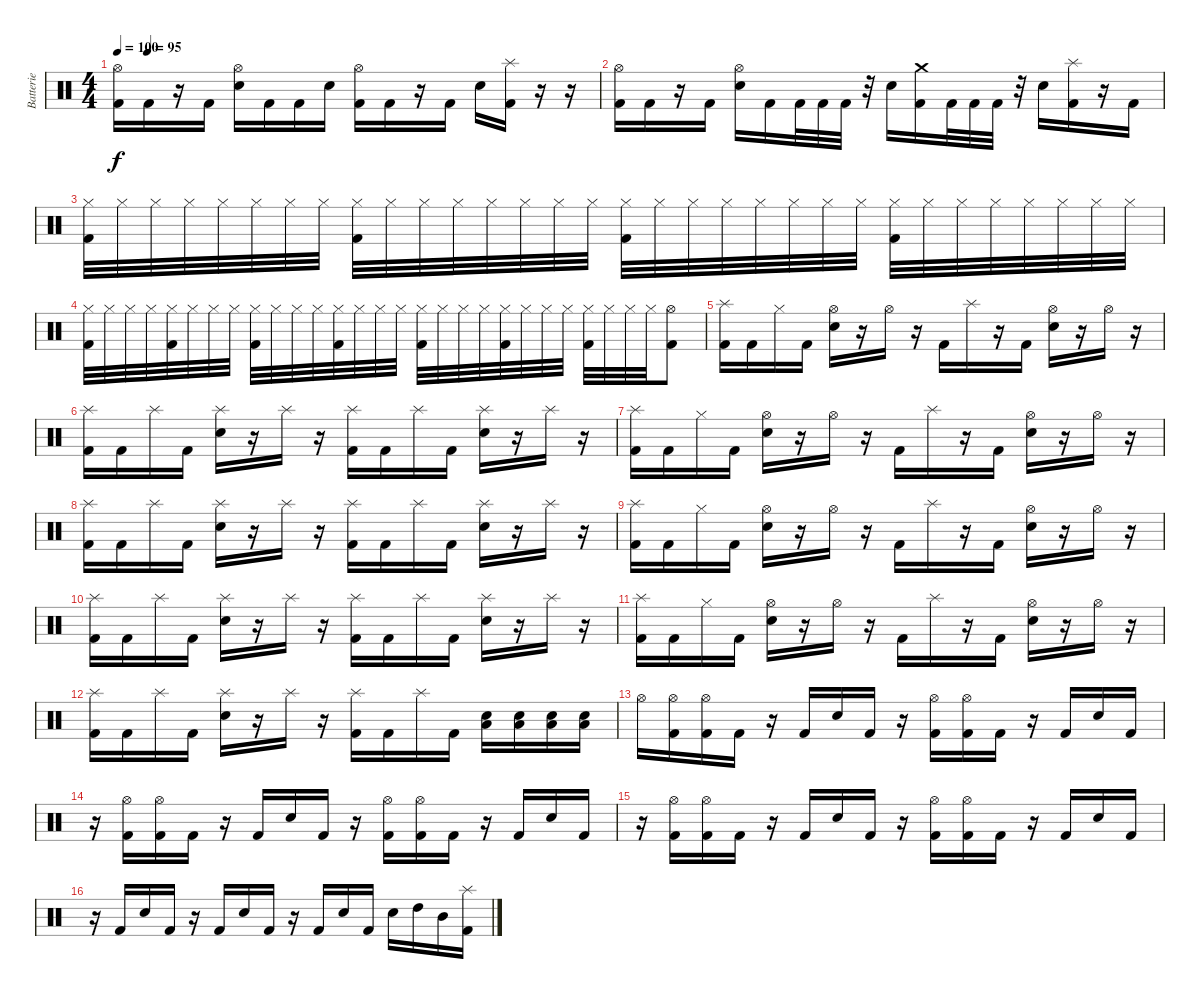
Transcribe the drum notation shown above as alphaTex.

\track ("Batterie" "Batterie") {instrument percussion}
\staff {score}
\articulation defaults
\ts (4 4)
\tempo 100
\tempo (95 0.0625)
\clef neutral
\ks c
("Hi-Hat (open)" "Kick (hit) 2").16{dy f} "Kick (hit) 2".16 r.16 "Kick (hit) 2".16 ("Hi-Hat (open)" "Electric Snare (hit)").16 "Kick (hit) 2".16 "Kick (hit) 2".16 "Electric Snare (hit)".16 ("Hi-Hat (open)" "Kick (hit) 2").16 "Kick (hit) 2".16 r.16 "Kick (hit) 2".16 "Electric Snare (hit)".16 ("Splash (hit)" "Kick (hit) 2").16 r.16 r.16 |
("Hi-Hat (open)" "Kick (hit) 2").16 "Kick (hit) 2".16 r.16 "Kick (hit) 2".16 ("Hi-Hat (open)" "Electric Snare (hit)").16 "Kick (hit) 2".16 "Kick (hit) 2".32 "Kick (hit) 2".32 "Kick (hit) 2".32 r.32 "Electric Snare (hit)".16 ("Crash medium (hit)" "Kick (hit) 2").16 "Kick (hit) 2".32 "Kick (hit) 2".32 "Kick (hit) 2".32 r.32 "Electric Snare (hit)".16 ("Splash (hit)" "Kick (hit) 2").16 r.16 "Kick (hit) 2".16 |
("Hi-Hat (closed)" "Kick (hit) 2").32 "Hi-Hat (closed)".32 "Hi-Hat (closed)".32 "Hi-Hat (closed)".32 "Hi-Hat (closed)".32 "Hi-Hat (closed)".32 "Hi-Hat (closed)".32 "Hi-Hat (closed)".32 ("Hi-Hat (closed)" "Kick (hit) 2").32 "Hi-Hat (closed)".32 "Hi-Hat (closed)".32 "Hi-Hat (closed)".32 "Hi-Hat (closed)".32 "Hi-Hat (closed)".32 "Hi-Hat (closed)".32 "Hi-Hat (closed)".32 ("Hi-Hat (closed)" "Kick (hit) 2").32 "Hi-Hat (closed)".32 "Hi-Hat (closed)".32 "Hi-Hat (closed)".32 "Hi-Hat (closed)".32 "Hi-Hat (closed)".32 "Hi-Hat (closed)".32 "Hi-Hat (closed)".32 ("Hi-Hat (closed)" "Kick (hit) 2").32 "Hi-Hat (closed)".32 "Hi-Hat (closed)".32 "Hi-Hat (closed)".32 "Hi-Hat (closed)".32 "Hi-Hat (closed)".32 "Hi-Hat (closed)".32 "Hi-Hat (closed)".32 |
("Hi-Hat (closed)" "Kick (hit) 2").32 "Hi-Hat (closed)".32 "Hi-Hat (closed)".32 "Hi-Hat (closed)".32 ("Hi-Hat (closed)" "Kick (hit) 2").32 "Hi-Hat (closed)".32 "Hi-Hat (closed)".32 "Hi-Hat (closed)".32 ("Hi-Hat (closed)" "Kick (hit) 2").32 "Hi-Hat (closed)".32 "Hi-Hat (closed)".32 "Hi-Hat (closed)".32 ("Hi-Hat (closed)" "Kick (hit) 2").32 "Hi-Hat (closed)".32 "Hi-Hat (closed)".32 "Hi-Hat (closed)".32 ("Hi-Hat (closed)" "Kick (hit) 2").32 "Hi-Hat (closed)".32 "Hi-Hat (closed)".32 "Hi-Hat (closed)".32 ("Hi-Hat (closed)" "Kick (hit) 2").32 "Hi-Hat (closed)".32 "Hi-Hat (closed)".32 "Hi-Hat (closed)".32 ("Hi-Hat (closed)" "Kick (hit) 2").32 "Hi-Hat (closed)".32 "Hi-Hat (closed)".32 "Hi-Hat (closed)".32 ("Hi-Hat (open)" "Kick (hit) 2").8 |
("Splash (hit)" "Kick (hit) 2").16 "Kick (hit) 2".16 "Hi-Hat (closed)".16 "Kick (hit) 2".16 ("Hi-Hat (open)" "Electric Snare (hit)").16 r.16 "Hi-Hat (open)".16 r.16 "Kick (hit) 2".16 "Splash (hit)".16 r.16 "Kick (hit) 2".16 ("Hi-Hat (open)" "Electric Snare (hit)").16 r.16 "Hi-Hat (open)".16 r.16 |
("Splash (hit)" "Kick (hit) 2").16 "Kick (hit) 2".16 "Splash (hit)".16 "Kick (hit) 2".16 ("Splash (hit)" "Electric Snare (hit)").16 r.16 "Splash (hit)".16 r.16 ("Splash (hit)" "Kick (hit) 2").16 "Kick (hit) 2".16 "Splash (hit)".16 "Kick (hit) 2".16 ("Splash (hit)" "Electric Snare (hit)").16 r.16 "Splash (hit)".16 r.16 |
("Splash (hit)" "Kick (hit) 2").16 "Kick (hit) 2".16 "Hi-Hat (closed)".16 "Kick (hit) 2".16 ("Hi-Hat (open)" "Electric Snare (hit)").16 r.16 "Hi-Hat (open)".16 r.16 "Kick (hit) 2".16 "Splash (hit)".16 r.16 "Kick (hit) 2".16 ("Hi-Hat (open)" "Electric Snare (hit)").16 r.16 "Hi-Hat (open)".16 r.16 |
("Splash (hit)" "Kick (hit) 2").16 "Kick (hit) 2".16 "Splash (hit)".16 "Kick (hit) 2".16 ("Splash (hit)" "Electric Snare (hit)").16 r.16 "Splash (hit)".16 r.16 ("Splash (hit)" "Kick (hit) 2").16 "Kick (hit) 2".16 "Splash (hit)".16 "Kick (hit) 2".16 ("Splash (hit)" "Electric Snare (hit)").16 r.16 "Splash (hit)".16 r.16 |
("Splash (hit)" "Kick (hit) 2").16 "Kick (hit) 2".16 "Hi-Hat (closed)".16 "Kick (hit) 2".16 ("Hi-Hat (open)" "Electric Snare (hit)").16 r.16 "Hi-Hat (open)".16 r.16 "Kick (hit) 2".16 "Splash (hit)".16 r.16 "Kick (hit) 2".16 ("Hi-Hat (open)" "Electric Snare (hit)").16 r.16 "Hi-Hat (open)".16 r.16 |
("Splash (hit)" "Kick (hit) 2").16 "Kick (hit) 2".16 "Splash (hit)".16 "Kick (hit) 2".16 ("Splash (hit)" "Electric Snare (hit)").16 r.16 "Splash (hit)".16 r.16 ("Splash (hit)" "Kick (hit) 2").16 "Kick (hit) 2".16 "Splash (hit)".16 "Kick (hit) 2".16 ("Splash (hit)" "Electric Snare (hit)").16 r.16 "Splash (hit)".16 r.16 |
("Splash (hit)" "Kick (hit) 2").16 "Kick (hit) 2".16 "Hi-Hat (closed)".16 "Kick (hit) 2".16 ("Hi-Hat (open)" "Electric Snare (hit)").16 r.16 "Hi-Hat (open)".16 r.16 "Kick (hit) 2".16 "Splash (hit)".16 r.16 "Kick (hit) 2".16 ("Hi-Hat (open)" "Electric Snare (hit)").16 r.16 "Hi-Hat (open)".16 r.16 |
("Splash (hit)" "Kick (hit) 2").16 "Kick (hit) 2".16 "Splash (hit)".16 "Kick (hit) 2".16 ("Splash (hit)" "Electric Snare (hit)").16 r.16 "Splash (hit)".16 r.16 ("Splash (hit)" "Kick (hit) 2").16 "Kick (hit) 2".16 "Splash (hit)".16 "Kick (hit) 2".16 ("Low Tom (hit)" "Electric Snare (hit)").16 ("Low Tom (hit)" "Electric Snare (hit)").16 ("Low Tom (hit)" "Electric Snare (hit)").16 ("Low Tom (hit)" "Electric Snare (hit)").16 |
"Hi-Hat (open)".16 ("Hi-Hat (open)" "Kick (hit) 2").16 ("Hi-Hat (open)" "Kick (hit) 2").16 "Kick (hit) 2".16 r.16 "Kick (hit) 2".16 "Electric Snare (hit)".16 "Kick (hit) 2".16 r.16 ("Hi-Hat (open)" "Kick (hit) 2").16 ("Hi-Hat (open)" "Kick (hit) 2").16 "Kick (hit) 2".16 r.16 "Kick (hit) 2".16 "Electric Snare (hit)".16 "Kick (hit) 2".16 |
r.16 ("Hi-Hat (open)" "Kick (hit) 2").16 ("Hi-Hat (open)" "Kick (hit) 2").16 "Kick (hit) 2".16 r.16 "Kick (hit) 2".16 "Electric Snare (hit)".16 "Kick (hit) 2".16 r.16 ("Hi-Hat (open)" "Kick (hit) 2").16 ("Hi-Hat (open)" "Kick (hit) 2").16 "Kick (hit) 2".16 r.16 "Kick (hit) 2".16 "Electric Snare (hit)".16 "Kick (hit) 2".16 |
r.16 ("Hi-Hat (open)" "Kick (hit) 2").16 ("Hi-Hat (open)" "Kick (hit) 2").16 "Kick (hit) 2".16 r.16 "Kick (hit) 2".16 "Electric Snare (hit)".16 "Kick (hit) 2".16 r.16 ("Hi-Hat (open)" "Kick (hit) 2").16 ("Hi-Hat (open)" "Kick (hit) 2").16 "Kick (hit) 2".16 r.16 "Kick (hit) 2".16 "Electric Snare (hit)".16 "Kick (hit) 2".16 |
r.16 "Kick (hit) 2".16 "Electric Snare (hit)".16 "Kick (hit) 2".16 r.16 "Kick (hit) 2".16 "Electric Snare (hit)".16 "Kick (hit) 2".16 r.16 "Kick (hit) 2".16 "Electric Snare (hit)".16 "Kick (hit) 2".16 "Electric Snare (hit)".16 "High Tom (hit)".16 "Mid Tom (hit)".16 ("Splash (hit)" "Kick (hit) 2").16
